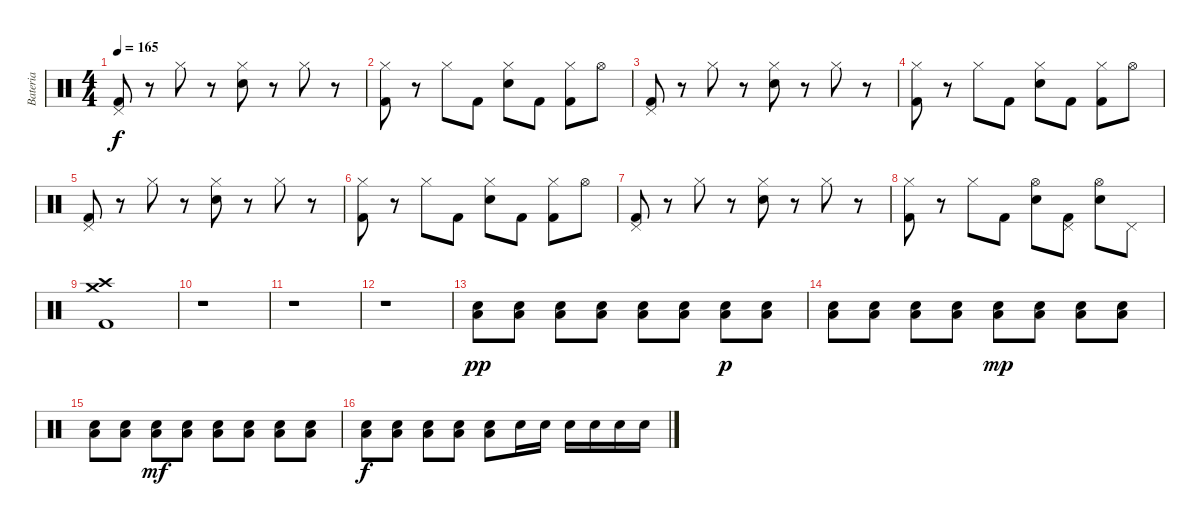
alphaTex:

\track ("Bateria" "Bateria") {instrument percussion}
\staff {score}
\articulation defaults
\ts (4 4)
\tempo 165
\clef neutral
\ks c
("Pedal Hi-Hat (hit)" "Kick (hit) 2").8{dy f} r.8 "Hi-Hat (closed)".8 r.8 ("Hi-Hat (closed)" "Snare (hit) 2").8 r.8 "Hi-Hat (closed)".8 r.8 |
("Hi-Hat (closed)" "Kick (hit) 2").8 r.8 "Hi-Hat (closed)".8 "Kick (hit) 2".8 ("Hi-Hat (closed)" "Snare (hit) 2").8 "Kick (hit) 2".8 ("Hi-Hat (closed)" "Kick (hit) 2").8 "Hi-Hat (open)".8 |
("Pedal Hi-Hat (hit)" "Kick (hit) 2").8 r.8 "Hi-Hat (closed)".8 r.8 ("Hi-Hat (closed)" "Snare (hit) 2").8 r.8 "Hi-Hat (closed)".8 r.8 |
("Hi-Hat (closed)" "Kick (hit) 2").8 r.8 "Hi-Hat (closed)".8 "Kick (hit) 2".8 ("Hi-Hat (closed)" "Snare (hit) 2").8 "Kick (hit) 2".8 ("Hi-Hat (closed)" "Kick (hit) 2").8 "Hi-Hat (open)".8 |
("Pedal Hi-Hat (hit)" "Kick (hit) 2").8 r.8 "Hi-Hat (closed)".8 r.8 ("Hi-Hat (closed)" "Snare (hit) 2").8 r.8 "Hi-Hat (closed)".8 r.8 |
("Hi-Hat (closed)" "Kick (hit) 2").8 r.8 "Hi-Hat (closed)".8 "Kick (hit) 2".8 ("Hi-Hat (closed)" "Snare (hit) 2").8 "Kick (hit) 2".8 ("Hi-Hat (closed)" "Kick (hit) 2").8 "Hi-Hat (open)".8 |
("Pedal Hi-Hat (hit)" "Kick (hit) 2").8 r.8 "Hi-Hat (closed)".8 r.8 ("Hi-Hat (closed)" "Snare (hit) 2").8 r.8 "Hi-Hat (closed)".8 r.8 |
("Hi-Hat (closed)" "Kick (hit) 2").8 r.8 "Hi-Hat (closed)".8 "Kick (hit) 2".8 ("Hi-Hat (open)" "Snare (hit) 2").8 ("Pedal Hi-Hat (hit)" "Kick (hit) 2").8 ("Hi-Hat (open)" "Snare (hit) 2").8 "Pedal Hi-Hat (hit)".8 |
("Crash medium (hit)" "Crash high (hit)" "Kick (hit) 2").1 |
r.1 |
r.1 |
r.1 |
("Snare (hit) 2" "Low Floor Tom (hit)").8{dy pp} ("Snare (hit) 2" "Low Floor Tom (hit)").8 ("Snare (hit) 2" "Low Floor Tom (hit)").8 ("Snare (hit) 2" "Low Floor Tom (hit)").8 ("Snare (hit) 2" "Low Floor Tom (hit)").8 ("Snare (hit) 2" "Low Floor Tom (hit)").8 ("Snare (hit) 2" "Low Floor Tom (hit)").8{dy p} ("Snare (hit) 2" "Low Floor Tom (hit)").8 |
("Snare (hit) 2" "Low Floor Tom (hit)").8 ("Snare (hit) 2" "Low Floor Tom (hit)").8 ("Snare (hit) 2" "Low Floor Tom (hit)").8 ("Snare (hit) 2" "Low Floor Tom (hit)").8 ("Snare (hit) 2" "Low Floor Tom (hit)").8{dy mp} ("Snare (hit) 2" "Low Floor Tom (hit)").8 ("Snare (hit) 2" "Low Floor Tom (hit)").8 ("Snare (hit) 2" "Low Floor Tom (hit)").8 |
("Snare (hit) 2" "Low Floor Tom (hit)").8 ("Snare (hit) 2" "Low Floor Tom (hit)").8 ("Snare (hit) 2" "Low Floor Tom (hit)").8{dy mf} ("Snare (hit) 2" "Low Floor Tom (hit)").8 ("Snare (hit) 2" "Low Floor Tom (hit)").8 ("Snare (hit) 2" "Low Floor Tom (hit)").8 ("Snare (hit) 2" "Low Floor Tom (hit)").8 ("Snare (hit) 2" "Low Floor Tom (hit)").8 |
("Snare (hit) 2" "Low Floor Tom (hit)").8{dy f} ("Snare (hit) 2" "Low Floor Tom (hit)").8 ("Snare (hit) 2" "Low Floor Tom (hit)").8 ("Snare (hit) 2" "Low Floor Tom (hit)").8 ("Snare (hit) 2" "Low Floor Tom (hit)").8 "Snare (hit) 2".16 "Snare (hit) 2".16 "Snare (hit) 2".16 "Snare (hit) 2".16 "Snare (hit) 2".16 "Snare (hit) 2".16
